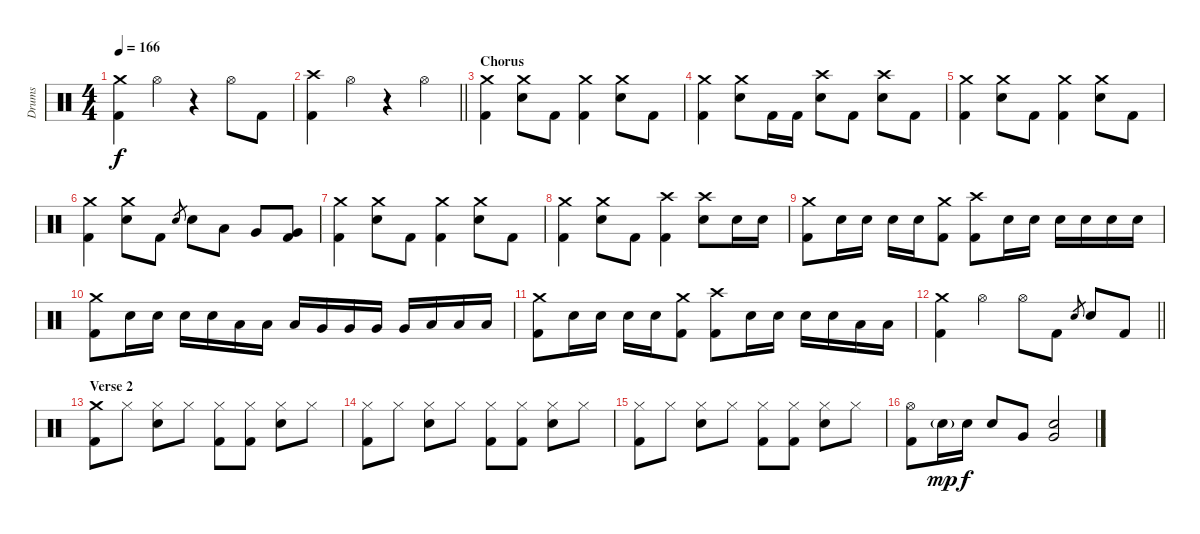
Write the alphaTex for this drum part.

\track ("Drums" "Drums") {instrument percussion}
\staff {score}
\articulation defaults
\ts (4 4)
\tempo 166
\clef neutral
\ks c
("Crash medium (hit)" "Kick (hit) 2").4{dy f} "Hi-Hat (open)".4 r.4 "Hi-Hat (open)".8 "Kick (hit) 2".8 |
\barLineRight lightlight
("Crash high (hit)" "Kick (hit) 2").4 "Hi-Hat (open)".4 r.4 "Hi-Hat (open)".4 |
\section ("" "Chorus")
("Crash medium (hit)" "Kick (hit) 2").4 ("Crash medium (hit)" "Electric Snare (hit)").8 "Kick (hit) 2".8 ("Crash medium (hit)" "Kick (hit) 2").4 ("Crash medium (hit)" "Electric Snare (hit)").8 "Kick (hit) 2".8 |
("Crash medium (hit)" "Kick (hit) 2").4 ("Crash medium (hit)" "Electric Snare (hit)").8 "Kick (hit) 2".16 "Kick (hit) 2".16 ("Crash high (hit)" "Electric Snare (hit)").8 "Kick (hit) 2".8 ("Crash high (hit)" "Electric Snare (hit)").8 "Kick (hit) 2".8 |
("Crash medium (hit)" "Kick (hit) 2").4 ("Crash medium (hit)" "Electric Snare (hit)").8 "Kick (hit) 2".8 ("Crash medium (hit)" "Kick (hit) 2").4 ("Crash medium (hit)" "Electric Snare (hit)").8 "Kick (hit) 2".8 |
("Crash medium (hit)" "Kick (hit) 2").4 ("Crash medium (hit)" "Electric Snare (hit)").8 "Kick (hit) 2".8 "Electric Snare (hit)".8{gr} "Electric Snare (hit)".8 "Low Tom (hit)".8 "Very Low Tom (hit)".8 ("Very Low Tom (hit)" "Kick (hit) 2").8 |
("Crash medium (hit)" "Kick (hit) 2").4 ("Crash medium (hit)" "Electric Snare (hit)").8 "Kick (hit) 2".8 ("Crash medium (hit)" "Kick (hit) 2").4 ("Crash medium (hit)" "Electric Snare (hit)").8 "Kick (hit) 2".8 |
("Crash medium (hit)" "Kick (hit) 2").4 ("Crash medium (hit)" "Electric Snare (hit)").8 "Kick (hit) 2".8 ("Crash high (hit)" "Kick (hit) 2").4 ("Crash high (hit)" "Electric Snare (hit)").8 "Electric Snare (hit)".16 "Electric Snare (hit)".16 |
("Crash medium (hit)" "Kick (hit) 2").8 "Electric Snare (hit)".16 "Electric Snare (hit)".16 "Electric Snare (hit)".16 "Electric Snare (hit)".16 ("Crash medium (hit)" "Kick (hit) 2").8 ("Crash high (hit)" "Kick (hit) 2").8 "Electric Snare (hit)".16 "Electric Snare (hit)".16 "Electric Snare (hit)".16 "Electric Snare (hit)".16 "Electric Snare (hit)".16 "Electric Snare (hit)".16 |
("Crash medium (hit)" "Kick (hit) 2").8 "Electric Snare (hit)".16 "Electric Snare (hit)".16 "Electric Snare (hit)".16 "Electric Snare (hit)".16 "Low Tom (hit)".16 "Low Tom (hit)".16 "Low Tom (hit)".16 "Very Low Tom (hit)".16 "Very Low Tom (hit)".16 "Very Low Tom (hit)".16 "Very Low Tom (hit)".16 "Low Floor Tom (hit)".16 "Low Floor Tom (hit)".16 "Low Floor Tom (hit)".16 |
("Crash medium (hit)" "Kick (hit) 2").8 "Electric Snare (hit)".16 "Electric Snare (hit)".16 "Electric Snare (hit)".16 "Electric Snare (hit)".16 ("Crash medium (hit)" "Kick (hit) 2").8 ("Crash high (hit)" "Kick (hit) 2").8 "Electric Snare (hit)".16 "Electric Snare (hit)".16 "Electric Snare (hit)".16 "Electric Snare (hit)".16 "Low Tom (hit)".16 "Low Tom (hit)".16 |
\barLineRight lightlight
("Crash medium (hit)" "Kick (hit) 2").4 "Hi-Hat (open)".4 "Hi-Hat (open)".8 "Kick (hit) 2".8 "Electric Snare (hit)".8{gr} "Electric Snare (hit)".8 "Kick (hit) 2".8 |
\section ("" "Verse 2")
("Crash medium (hit)" "Kick (hit) 2").8 "Hi-Hat (closed)".8 ("Hi-Hat (closed)" "Electric Snare (hit)").8 "Hi-Hat (closed)".8 ("Hi-Hat (closed)" "Kick (hit) 2").8 ("Hi-Hat (closed)" "Kick (hit) 2").8 ("Hi-Hat (closed)" "Electric Snare (hit)").8 "Hi-Hat (closed)".8 |
("Hi-Hat (closed)" "Kick (hit) 2").8 "Hi-Hat (closed)".8 ("Hi-Hat (closed)" "Electric Snare (hit)").8 "Hi-Hat (closed)".8 ("Hi-Hat (closed)" "Kick (hit) 2").8 ("Hi-Hat (closed)" "Kick (hit) 2").8 ("Hi-Hat (closed)" "Electric Snare (hit)").8 "Hi-Hat (closed)".8 |
("Hi-Hat (closed)" "Kick (hit) 2").8 "Hi-Hat (closed)".8 ("Hi-Hat (closed)" "Electric Snare (hit)").8 "Hi-Hat (closed)".8 ("Hi-Hat (closed)" "Kick (hit) 2").8 ("Hi-Hat (closed)" "Kick (hit) 2").8 ("Hi-Hat (closed)" "Electric Snare (hit)").8 "Hi-Hat (closed)".8 |
("Hi-Hat (open)" "Kick (hit) 2").8 "Electric Snare (hit)"{g}.16{dy mp} "Electric Snare (hit)".16{dy f} "Electric Snare (hit)".8 "Very Low Tom (hit)".8 ("Electric Snare (hit)" "Very Low Tom (hit)").2
